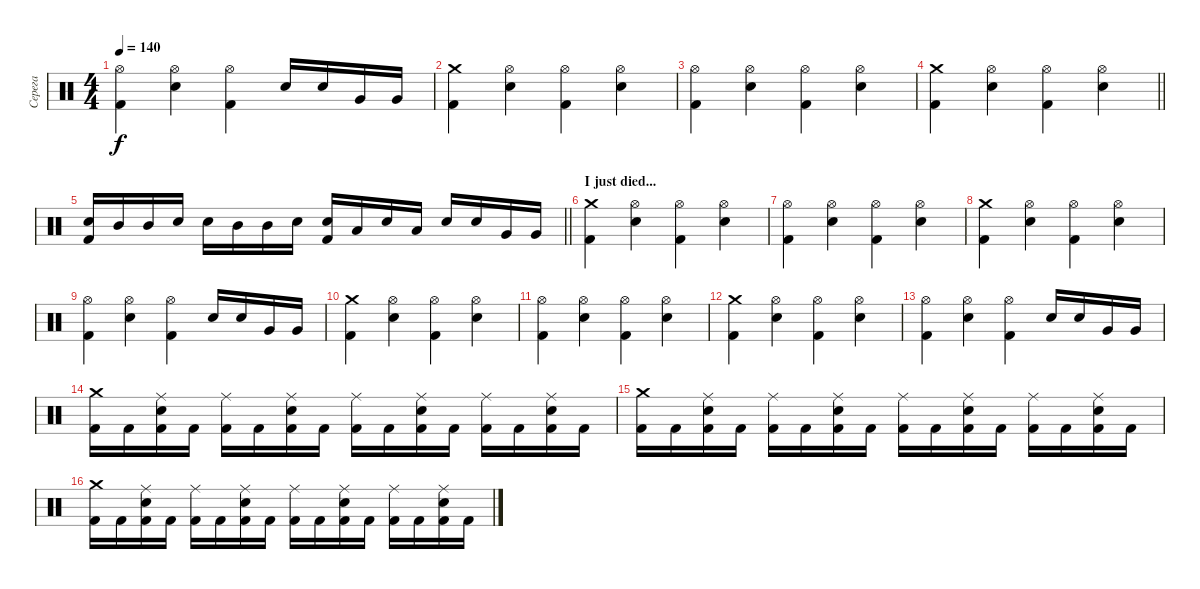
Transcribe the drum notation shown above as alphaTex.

\track ("Серега" "Серега") {instrument percussion}
\staff {score}
\articulation defaults
\ts (4 4)
\tempo 140
\clef neutral
\ks c
("Hi-Hat (open)" "Kick (hit) 2").4{dy f} ("Hi-Hat (open)" "Electric Snare (hit)").4 ("Hi-Hat (open)" "Kick (hit) 2").4 "Electric Snare (hit)".16 "Electric Snare (hit)".16 "Very Low Tom (hit)".16 "Very Low Tom (hit)".16 |
("Crash medium (hit)" "Kick (hit) 2").4 ("Hi-Hat (open)" "Electric Snare (hit)").4 ("Hi-Hat (open)" "Kick (hit) 2").4 ("Hi-Hat (open)" "Electric Snare (hit)").4 |
("Hi-Hat (open)" "Kick (hit) 2").4 ("Hi-Hat (open)" "Electric Snare (hit)").4 ("Hi-Hat (open)" "Kick (hit) 2").4 ("Hi-Hat (open)" "Electric Snare (hit)").4 |
\barLineRight lightlight
("Crash medium (hit)" "Kick (hit) 2").4 ("Hi-Hat (open)" "Electric Snare (hit)").4 ("Hi-Hat (open)" "Kick (hit) 2").4 ("Hi-Hat (open)" "Electric Snare (hit)").4 |
\section ("" "")
\barLineRight lightlight
("Electric Snare (hit)" "Kick (hit) 2").16 "Mid Tom (hit)".16 "Mid Tom (hit)".16 "Electric Snare (hit)".16 "Electric Snare (hit)".16 "Mid Tom (hit)".16 "Mid Tom (hit)".16 "Electric Snare (hit)".16 ("Electric Snare (hit)" "Kick (hit) 2").16 "Low Tom (hit)".16 "Electric Snare (hit)".16 "Low Tom (hit)".16 "Electric Snare (hit)".16 "Electric Snare (hit)".16 "Very Low Tom (hit)".16 "Very Low Tom (hit)".16 |
\section ("" "I just died...")
("Crash medium (hit)" "Kick (hit) 2").4 ("Hi-Hat (open)" "Electric Snare (hit)").4 ("Hi-Hat (open)" "Kick (hit) 2").4 ("Hi-Hat (open)" "Electric Snare (hit)").4 |
("Hi-Hat (open)" "Kick (hit) 2").4 ("Hi-Hat (open)" "Electric Snare (hit)").4 ("Hi-Hat (open)" "Kick (hit) 2").4 ("Hi-Hat (open)" "Electric Snare (hit)").4 |
("Crash medium (hit)" "Kick (hit) 2").4 ("Hi-Hat (open)" "Electric Snare (hit)").4 ("Hi-Hat (open)" "Kick (hit) 2").4 ("Hi-Hat (open)" "Electric Snare (hit)").4 |
("Hi-Hat (open)" "Kick (hit) 2").4 ("Hi-Hat (open)" "Electric Snare (hit)").4 ("Hi-Hat (open)" "Kick (hit) 2").4 "Electric Snare (hit)".16 "Electric Snare (hit)".16 "Very Low Tom (hit)".16 "Very Low Tom (hit)".16 |
("Crash medium (hit)" "Kick (hit) 2").4 ("Hi-Hat (open)" "Electric Snare (hit)").4 ("Hi-Hat (open)" "Kick (hit) 2").4 ("Hi-Hat (open)" "Electric Snare (hit)").4 |
("Hi-Hat (open)" "Kick (hit) 2").4 ("Hi-Hat (open)" "Electric Snare (hit)").4 ("Hi-Hat (open)" "Kick (hit) 2").4 ("Hi-Hat (open)" "Electric Snare (hit)").4 |
("Crash medium (hit)" "Kick (hit) 2").4 ("Hi-Hat (open)" "Electric Snare (hit)").4 ("Hi-Hat (open)" "Kick (hit) 2").4 ("Hi-Hat (open)" "Electric Snare (hit)").4 |
("Hi-Hat (open)" "Kick (hit) 2").4 ("Hi-Hat (open)" "Electric Snare (hit)").4 ("Hi-Hat (open)" "Kick (hit) 2").4 "Electric Snare (hit)".16 "Electric Snare (hit)".16 "Very Low Tom (hit)".16 "Very Low Tom (hit)".16 |
("Kick (hit) 2" "Crash medium (hit)").16 "Kick (hit) 2".16 ("Kick (hit) 2" "Electric Snare (hit)" "Ride (middle)").16 "Kick (hit) 2".16 ("Kick (hit) 2" "Ride (middle)").16 "Kick (hit) 2".16 ("Kick (hit) 2" "Electric Snare (hit)" "Ride (middle)").16 "Kick (hit) 2".16 ("Kick (hit) 2" "Ride (middle)").16 "Kick (hit) 2".16 ("Kick (hit) 2" "Electric Snare (hit)" "Ride (middle)").16 "Kick (hit) 2".16 ("Kick (hit) 2" "Ride (middle)").16 "Kick (hit) 2".16 ("Kick (hit) 2" "Electric Snare (hit)" "Ride (middle)").16 "Kick (hit) 2".16 |
("Kick (hit) 2" "Crash medium (hit)").16 "Kick (hit) 2".16 ("Kick (hit) 2" "Electric Snare (hit)" "Ride (middle)").16 "Kick (hit) 2".16 ("Kick (hit) 2" "Ride (middle)").16 "Kick (hit) 2".16 ("Kick (hit) 2" "Electric Snare (hit)" "Ride (middle)").16 "Kick (hit) 2".16 ("Kick (hit) 2" "Ride (middle)").16 "Kick (hit) 2".16 ("Kick (hit) 2" "Electric Snare (hit)" "Ride (middle)").16 "Kick (hit) 2".16 ("Kick (hit) 2" "Ride (middle)").16 "Kick (hit) 2".16 ("Kick (hit) 2" "Electric Snare (hit)" "Ride (middle)").16 "Kick (hit) 2".16 |
("Kick (hit) 2" "Crash medium (hit)").16 "Kick (hit) 2".16 ("Kick (hit) 2" "Electric Snare (hit)" "Ride (middle)").16 "Kick (hit) 2".16 ("Kick (hit) 2" "Ride (middle)").16 "Kick (hit) 2".16 ("Kick (hit) 2" "Electric Snare (hit)" "Ride (middle)").16 "Kick (hit) 2".16 ("Kick (hit) 2" "Ride (middle)").16 "Kick (hit) 2".16 ("Kick (hit) 2" "Electric Snare (hit)" "Ride (middle)").16 "Kick (hit) 2".16 ("Kick (hit) 2" "Ride (middle)").16 "Kick (hit) 2".16 ("Kick (hit) 2" "Electric Snare (hit)" "Ride (middle)").16 "Kick (hit) 2".16
